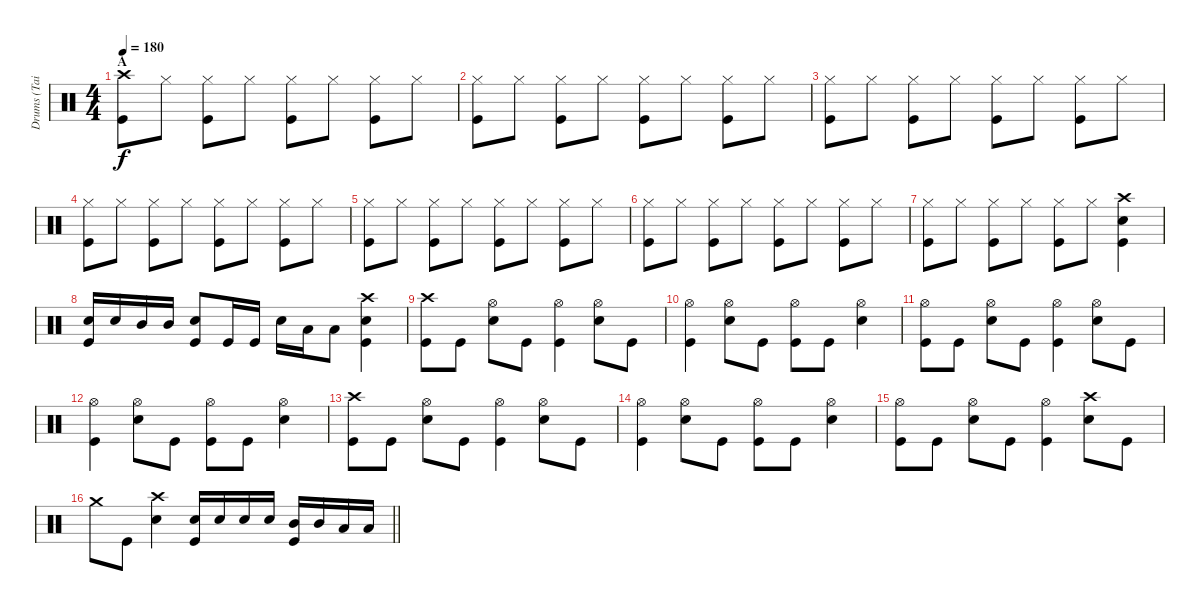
\track ("Drums (Tainaka Ritsu)" "Drums (Tai") {instrument percussion}
\staff {score}
\articulation defaults
\ts (4 4)
\section ("" "A")
\tempo 180
\clef neutral
\ks c
("Crash high (hit)" "Kick (hit)").8{dy f} "Hi-Hat (closed)".8 ("Hi-Hat (closed)" "Kick (hit)").8 "Hi-Hat (closed)".8 ("Hi-Hat (closed)" "Kick (hit)").8 "Hi-Hat (closed)".8 ("Hi-Hat (closed)" "Kick (hit)").8 "Hi-Hat (closed)".8 |
("Hi-Hat (closed)" "Kick (hit)").8 "Hi-Hat (closed)".8 ("Hi-Hat (closed)" "Kick (hit)").8 "Hi-Hat (closed)".8 ("Hi-Hat (closed)" "Kick (hit)").8 "Hi-Hat (closed)".8 ("Hi-Hat (closed)" "Kick (hit)").8 "Hi-Hat (closed)".8 |
("Hi-Hat (closed)" "Kick (hit)").8 "Hi-Hat (closed)".8 ("Hi-Hat (closed)" "Kick (hit)").8 "Hi-Hat (closed)".8 ("Hi-Hat (closed)" "Kick (hit)").8 "Hi-Hat (closed)".8 ("Hi-Hat (closed)" "Kick (hit)").8 "Hi-Hat (closed)".8 |
("Hi-Hat (closed)" "Kick (hit)").8 "Hi-Hat (closed)".8 ("Hi-Hat (closed)" "Kick (hit)").8 "Hi-Hat (closed)".8 ("Hi-Hat (closed)" "Kick (hit)").8 "Hi-Hat (closed)".8 ("Hi-Hat (closed)" "Kick (hit)").8 "Hi-Hat (closed)".8 |
("Hi-Hat (closed)" "Kick (hit)").8 "Hi-Hat (closed)".8 ("Hi-Hat (closed)" "Kick (hit)").8 "Hi-Hat (closed)".8 ("Hi-Hat (closed)" "Kick (hit)").8 "Hi-Hat (closed)".8 ("Hi-Hat (closed)" "Kick (hit)").8 "Hi-Hat (closed)".8 |
("Hi-Hat (closed)" "Kick (hit)").8 "Hi-Hat (closed)".8 ("Hi-Hat (closed)" "Kick (hit)").8 "Hi-Hat (closed)".8 ("Hi-Hat (closed)" "Kick (hit)").8 "Hi-Hat (closed)".8 ("Hi-Hat (closed)" "Kick (hit)").8 "Hi-Hat (closed)".8 |
("Hi-Hat (closed)" "Kick (hit)").8 "Hi-Hat (closed)".8 ("Hi-Hat (closed)" "Kick (hit)").8 "Hi-Hat (closed)".8 ("Hi-Hat (closed)" "Kick (hit)").8 "Hi-Hat (closed)".8 ("Crash high (hit)" "Snare (hit) 2" "Kick (hit)").4 |
("Snare (hit) 2" "Kick (hit)").16 "Snare (hit) 2".16 "Mid Tom (hit)".16 "Mid Tom (hit)".16 ("Snare (hit) 2" "Kick (hit)").8 "Kick (hit)".16 "Kick (hit)".16 "Snare (hit) 2".16 "Low Tom (hit)".16 "Low Tom (hit)".8 ("Crash high (hit)" "Snare (hit) 2" "Kick (hit)").4 |
("Crash high (hit)" "Kick (hit)").8 "Kick (hit)".8 ("Hi-Hat (open)" "Snare (hit) 2").8 "Kick (hit)".8 ("Hi-Hat (open)" "Kick (hit)").4 ("Hi-Hat (open)" "Snare (hit) 2").8 "Kick (hit)".8 |
("Hi-Hat (open)" "Kick (hit)").4 ("Hi-Hat (open)" "Snare (hit) 2").8 "Kick (hit)".8 ("Hi-Hat (open)" "Kick (hit)").8 "Kick (hit)".8 ("Hi-Hat (open)" "Snare (hit) 2").4 |
("Hi-Hat (open)" "Kick (hit)").8 "Kick (hit)".8 ("Hi-Hat (open)" "Snare (hit) 2").8 "Kick (hit)".8 ("Hi-Hat (open)" "Kick (hit)").4 ("Hi-Hat (open)" "Snare (hit) 2").8 "Kick (hit)".8 |
("Hi-Hat (open)" "Kick (hit)").4 ("Hi-Hat (open)" "Snare (hit) 2").8 "Kick (hit)".8 ("Hi-Hat (open)" "Kick (hit)").8 "Kick (hit)".8 ("Hi-Hat (open)" "Snare (hit) 2").4 |
("Crash high (hit)" "Kick (hit)").8 "Kick (hit)".8 ("Hi-Hat (open)" "Snare (hit) 2").8 "Kick (hit)".8 ("Hi-Hat (open)" "Kick (hit)").4 ("Hi-Hat (open)" "Snare (hit) 2").8 "Kick (hit)".8 |
("Hi-Hat (open)" "Kick (hit)").4 ("Hi-Hat (open)" "Snare (hit) 2").8 "Kick (hit)".8 ("Hi-Hat (open)" "Kick (hit)").8 "Kick (hit)".8 ("Hi-Hat (open)" "Snare (hit) 2").4 |
("Hi-Hat (open)" "Kick (hit)").8 "Kick (hit)".8 ("Hi-Hat (open)" "Snare (hit) 2").8 "Kick (hit)".8 ("Hi-Hat (open)" "Kick (hit)").4 ("Crash high (hit)" "Snare (hit) 2").8 "Kick (hit)".8 |
\barLineRight lightlight "Crash medium (hit)".8 "Kick (hit)".8
("Crash high (hit)" "Snare (hit) 2").4 ("Snare (hit) 2" "Kick (hit)").16 "Snare (hit) 2".16 "Snare (hit) 2".16 "Snare (hit) 2".16 ("Mid Tom (hit)" "Kick (hit)").16 "Mid Tom (hit)".16 "Low Tom (hit)".16 "Low Tom (hit)".16
